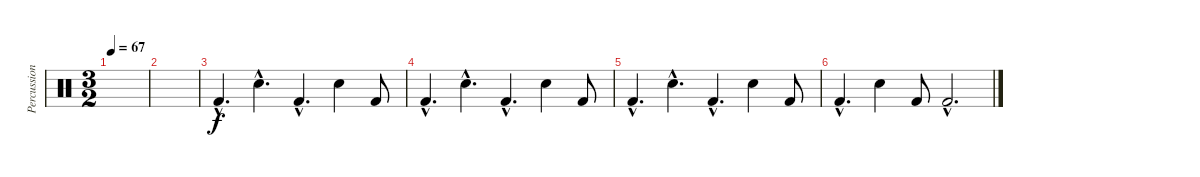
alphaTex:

\track ("Percussion" "Percussion") {instrument percussion}
\staff {score}
\articulation defaults
\ts (3 2)
\tempo 67
\clef neutral
\ks c
|
|
"Kick (hit) 2"{hac}.4{d} "Snare (hit) 2"{hac}.4{d} "Kick (hit) 2"{hac}.4{d} "Snare (hit) 2".4 "Kick (hit) 2".8 |
"Kick (hit) 2"{hac}.4{d} "Snare (hit) 2"{hac}.4{d} "Kick (hit) 2"{hac}.4{d} "Snare (hit) 2".4 "Kick (hit) 2".8 |
"Kick (hit) 2"{hac}.4{d} "Snare (hit) 2"{hac}.4{d} "Kick (hit) 2"{hac}.4{d} "Snare (hit) 2".4 "Kick (hit) 2".8 |
"Kick (hit) 2"{hac}.4{d} "Snare (hit) 2".4 "Kick (hit) 2".8 "Kick (hit) 2"{hac}.2{d}
